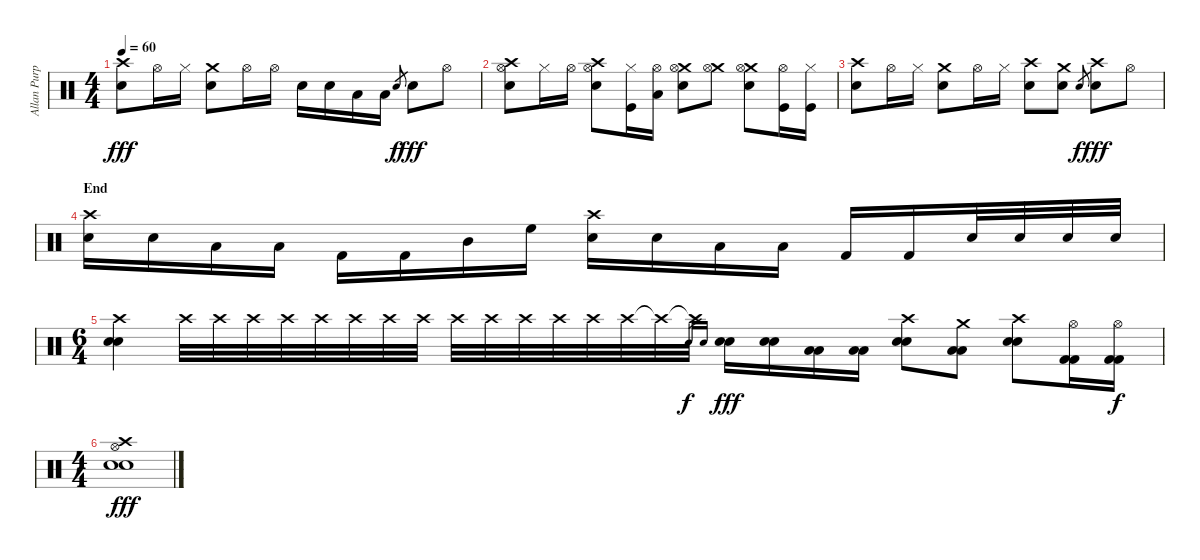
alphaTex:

\track ("Allan Purple" "Allan Purp") {instrument percussion}
\staff {score}
\articulation defaults
\ts (4 4)
\tempo 60
\clef neutral
\ks c
("Crash high (hit)" "Snare (hit) 2").8{dy fff} "Hi-Hat (open)".16 "Hi-Hat (closed)".16 ("Crash medium (hit)" "Electric Snare (hit)").8 "Hi-Hat (open)".16 "Hi-Hat (open)".16 "Electric Snare (hit)".16 "Electric Snare (hit)".16 "Low Tom (hit)".16 "Low Tom (hit)".16 "Electric Snare (hit)".8{gr dy f} "Electric Snare (hit)".8{dy fff} "Hi-Hat (open)".8 |
("Crash high (hit)" "Hi-Hat (open)" "Snare (hit) 2").8 "Hi-Hat (closed)".16 "Hi-Hat (open)".16 ("Crash high (hit)" "Hi-Hat (open)" "Electric Snare (hit)").8 ("Hi-Hat (closed)" "Kick (hit)").16 ("Hi-Hat (open)" "Low Tom (hit)").16 ("Crash medium (hit)" "Hi-Hat (open)" "Snare (hit) 2").8 ("Crash medium (hit)" "Hi-Hat (open)").8 ("Crash medium (hit)" "Hi-Hat (open)" "Electric Snare (hit)").8 ("Hi-Hat (open)" "Kick (hit)").16 ("Hi-Hat (closed)" "Kick (hit)").16 |
("Crash high (hit)" "Snare (hit) 2").8 "Hi-Hat (open)".16 "Hi-Hat (closed)".16 ("Crash medium (hit)" "Electric Snare (hit)").8 "Hi-Hat (open)".16 "Hi-Hat (closed)".16 ("Crash high (hit)" "Electric Snare (hit)").8 ("Crash medium (hit)" "Snare (hit) 2").8 "Electric Snare (hit)".8{gr dy f} ("Crash high (hit)" "Electric Snare (hit)").8{dy fff} "Hi-Hat (open)".8 |
\section ("" "End")
("Crash high (hit)" "Electric Snare (hit)").16 "Electric Snare (hit)".16 "Low Tom (hit)".16 "Low Tom (hit)".16 "Kick (hit) 2".16 "Kick (hit) 2".16 "Mid Tom (hit)".16 "High Floor Tom (hit)".16 ("Crash high (hit)" "Electric Snare (hit)").16 "Electric Snare (hit)".16 "Low Tom (hit)".16 "Low Tom (hit)".16 "Kick (hit) 2".16 "Kick (hit) 2".16 "Electric Snare (hit)".32 "Electric Snare (hit)".32 "Electric Snare (hit)".32 "Electric Snare (hit)".32 |
\ts (6 4)
("Crash high (hit)" "Snare (hit) 2" "Snare (hit) 2").4 "Crash high (hit)".32 "Crash high (hit)".32 "Crash high (hit)".32 "Crash high (hit)".32 "Crash high (hit)".32 "Crash high (hit)".32 "Crash high (hit)".32 "Crash high (hit)".32 "Crash high (hit)".32 "Crash high (hit)".32 "Crash high (hit)".32 "Crash high (hit)".32 "Crash high (hit)".32 "Crash high (hit)".32 "Crash high (hit)"{t}.32 "Crash high (hit)"{t}.32 "Electric Snare (hit)".16{gr dy f} "Electric Snare (hit)".16{gr} ("Electric Snare (hit)" "Electric Snare (hit)").16{dy fff} ("Electric Snare (hit)" "Electric Snare (hit)").16 ("Low Tom (hit)" "Low Tom (hit)").16 ("Low Tom (hit)" "Low Tom (hit)").16 ("Crash high (hit)" "Electric Snare (hit)" "Electric Snare (hit)").8 ("Crash medium (hit)" "Low Tom (hit)" "Low Tom (hit)").8 ("Crash high (hit)" "Snare (hit) 2" "Snare (hit) 2").8 ("Hi-Hat (open)" "Kick (hit) 2" "Kick (hit) 2").16 ("Hi-Hat (open)" "Kick (hit) 2" "Kick (hit) 2").16{dy f} |
\ts (4 4)
("Crash high (hit)" "Hi-Hat (open)" "Snare (hit) 2" "Snare (hit) 2").1{dy fff}
